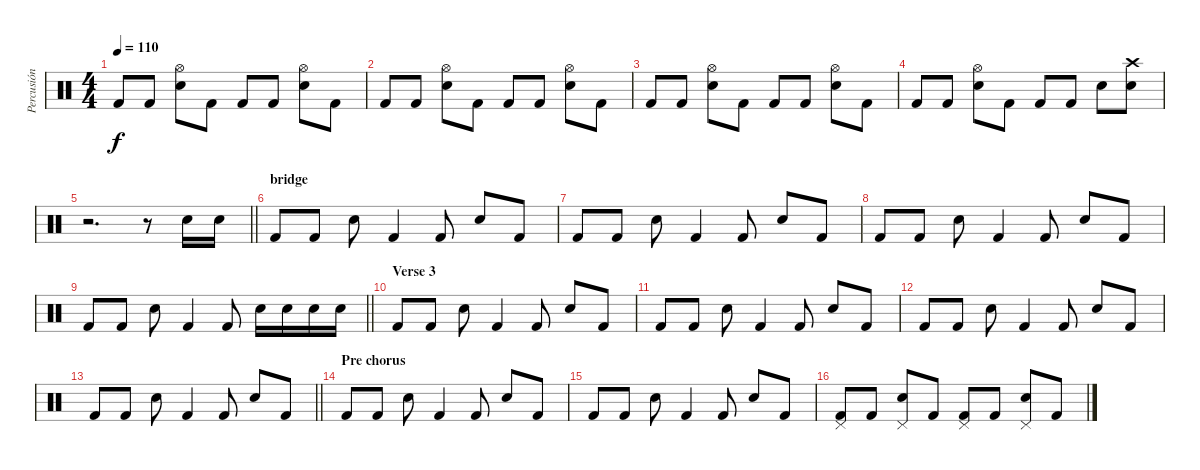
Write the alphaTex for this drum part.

\track ("Percusión" "Percusión") {instrument percussion}
\staff {score}
\articulation defaults
\ts (4 4)
\tempo 110
\clef neutral
\ks c "Kick (hit) 2".8{dy f} "Kick (hit) 2".8
("Hi-Hat (open)" "Snare (hit) 2").8 "Kick (hit) 2".8 "Kick (hit) 2".8 "Kick (hit) 2".8 ("Hi-Hat (open)" "Snare (hit) 2").8 "Kick (hit) 2".8 |
"Kick (hit) 2".8 "Kick (hit) 2".8 ("Hi-Hat (open)" "Snare (hit) 2").8 "Kick (hit) 2".8 "Kick (hit) 2".8 "Kick (hit) 2".8 ("Hi-Hat (open)" "Snare (hit) 2").8 "Kick (hit) 2".8 |
"Kick (hit) 2".8 "Kick (hit) 2".8 ("Hi-Hat (open)" "Snare (hit) 2").8 "Kick (hit) 2".8 "Kick (hit) 2".8 "Kick (hit) 2".8 ("Hi-Hat (open)" "Snare (hit) 2").8 "Kick (hit) 2".8 |
"Kick (hit) 2".8 "Kick (hit) 2".8 ("Hi-Hat (open)" "Snare (hit) 2").8 "Kick (hit) 2".8 "Kick (hit) 2".8 "Kick (hit) 2".8 "Snare (hit) 2".8 ("Crash high (hit)" "Electric Snare (hit)").8 |
\barLineRight lightlight
r.2{d} r.8 "Snare (hit) 2".16 "Snare (hit) 2".16 |
\section ("" "bridge")
"Kick (hit) 2".8 "Kick (hit) 2".8 "Snare (hit) 2".8 "Kick (hit) 2".4 "Kick (hit) 2".8 "Snare (hit) 2".8 "Kick (hit) 2".8 |
"Kick (hit) 2".8 "Kick (hit) 2".8 "Snare (hit) 2".8 "Kick (hit) 2".4 "Kick (hit) 2".8 "Snare (hit) 2".8 "Kick (hit) 2".8 |
"Kick (hit) 2".8 "Kick (hit) 2".8 "Snare (hit) 2".8 "Kick (hit) 2".4 "Kick (hit) 2".8 "Snare (hit) 2".8 "Kick (hit) 2".8 |
\barLineRight lightlight "Kick (hit) 2".8 "Kick (hit) 2".8 "Snare (hit) 2".8 "Kick (hit) 2".4 "Kick (hit) 2".8 "Snare (hit) 2".16 "Snare (hit) 2".16 "Snare (hit) 2".16 "Snare (hit) 2".16
|
\section ("" "Verse 3")
"Kick (hit) 2".8 "Kick (hit) 2".8 "Snare (hit) 2".8 "Kick (hit) 2".4 "Kick (hit) 2".8 "Snare (hit) 2".8 "Kick (hit) 2".8 |
"Kick (hit) 2".8 "Kick (hit) 2".8 "Snare (hit) 2".8 "Kick (hit) 2".4 "Kick (hit) 2".8 "Snare (hit) 2".8 "Kick (hit) 2".8 |
"Kick (hit) 2".8 "Kick (hit) 2".8 "Snare (hit) 2".8 "Kick (hit) 2".4 "Kick (hit) 2".8 "Snare (hit) 2".8 "Kick (hit) 2".8 |
\barLineRight lightlight "Kick (hit) 2".8 "Kick (hit) 2".8 "Snare (hit) 2".8 "Kick (hit) 2".4 "Kick (hit) 2".8 "Snare (hit) 2".8 "Kick (hit) 2".8
|
\section ("" "Pre chorus")
"Kick (hit) 2".8 "Kick (hit) 2".8 "Snare (hit) 2".8 "Kick (hit) 2".4 "Kick (hit) 2".8 "Snare (hit) 2".8 "Kick (hit) 2".8 |
"Kick (hit) 2".8 "Kick (hit) 2".8 "Snare (hit) 2".8 "Kick (hit) 2".4 "Kick (hit) 2".8 "Snare (hit) 2".8 "Kick (hit) 2".8 |
("Pedal Hi-Hat (hit)" "Kick (hit) 2").8 "Kick (hit) 2".8 ("Pedal Hi-Hat (hit)" "Snare (hit) 2").8 "Kick (hit) 2".8 ("Pedal Hi-Hat (hit)" "Kick (hit) 2").8 "Kick (hit) 2".8 ("Pedal Hi-Hat (hit)" "Snare (hit) 2").8 "Kick (hit) 2".8
